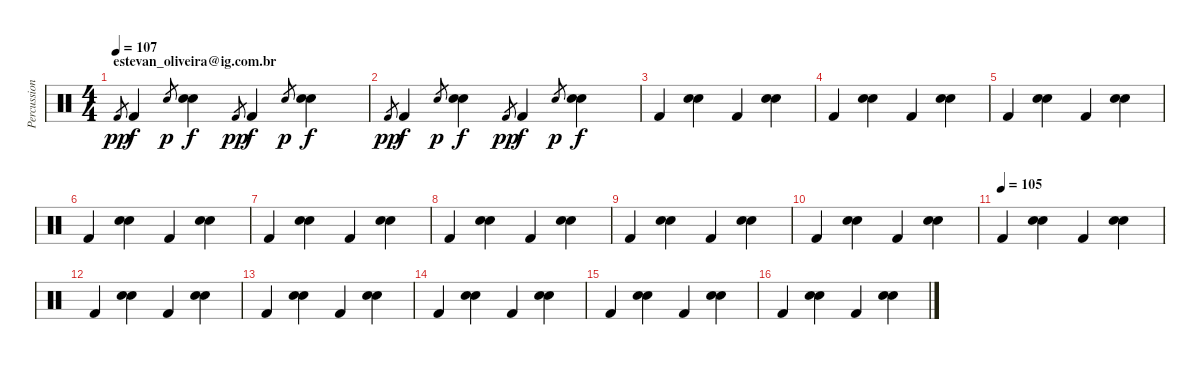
\track ("Percussion" "Percussion") {instrument percussion}
\staff {score}
\articulation defaults
\ts (4 4)
\section ("" "estevan_oliveira@ig.com.br")
\tempo 107
\clef neutral
\ks c "Kick (hit) 2".8{gr dy pp} "Kick (hit) 2".4{dy f} "Hand Clap (hit)"{sl}.8{gr dy p}
("Snare (hit) 2" "Hand Clap (hit)").4{dy f} "Kick (hit) 2".8{gr dy pp} "Kick (hit) 2".4{dy f} "Hand Clap (hit)"{sl}.8{gr dy p} ("Snare (hit) 2" "Hand Clap (hit)").4{dy f} |
"Kick (hit) 2".8{gr dy pp} "Kick (hit) 2".4{dy f} "Hand Clap (hit)"{sl}.8{gr dy p} ("Snare (hit) 2" "Hand Clap (hit)").4{dy f} "Kick (hit) 2".8{gr dy pp} "Kick (hit) 2".4{dy f} "Hand Clap (hit)"{sl}.8{gr dy p} ("Snare (hit) 2" "Hand Clap (hit)").4{dy f} |
"Kick (hit) 2".4 ("Snare (hit) 2" "Hand Clap (hit)").4 "Kick (hit) 2".4 ("Snare (hit) 2" "Hand Clap (hit)").4 |
"Kick (hit) 2".4 ("Snare (hit) 2" "Hand Clap (hit)").4 "Kick (hit) 2".4 ("Snare (hit) 2" "Hand Clap (hit)").4 |
"Kick (hit) 2".4 ("Snare (hit) 2" "Hand Clap (hit)").4 "Kick (hit) 2".4 ("Snare (hit) 2" "Hand Clap (hit)").4 |
"Kick (hit) 2".4 ("Snare (hit) 2" "Hand Clap (hit)").4 "Kick (hit) 2".4 ("Snare (hit) 2" "Hand Clap (hit)").4 |
"Kick (hit) 2".4 ("Snare (hit) 2" "Hand Clap (hit)").4 "Kick (hit) 2".4 ("Snare (hit) 2" "Hand Clap (hit)").4 |
"Kick (hit) 2".4 ("Snare (hit) 2" "Hand Clap (hit)").4 "Kick (hit) 2".4 ("Snare (hit) 2" "Hand Clap (hit)").4 |
"Kick (hit) 2".4 ("Snare (hit) 2" "Hand Clap (hit)").4 "Kick (hit) 2".4 ("Snare (hit) 2" "Hand Clap (hit)").4 |
"Kick (hit) 2".4 ("Snare (hit) 2" "Hand Clap (hit)").4 "Kick (hit) 2".4 ("Snare (hit) 2" "Hand Clap (hit)").4 |
\tempo (105)
"Kick (hit) 2".4 ("Snare (hit) 2" "Hand Clap (hit)").4 "Kick (hit) 2".4 ("Snare (hit) 2" "Hand Clap (hit)").4 |
"Kick (hit) 2".4 ("Snare (hit) 2" "Hand Clap (hit)").4 "Kick (hit) 2".4 ("Snare (hit) 2" "Hand Clap (hit)").4 |
"Kick (hit) 2".4 ("Snare (hit) 2" "Hand Clap (hit)").4 "Kick (hit) 2".4 ("Snare (hit) 2" "Hand Clap (hit)").4 |
"Kick (hit) 2".4 ("Snare (hit) 2" "Hand Clap (hit)").4 "Kick (hit) 2".4 ("Snare (hit) 2" "Hand Clap (hit)").4 |
"Kick (hit) 2".4 ("Snare (hit) 2" "Hand Clap (hit)").4 "Kick (hit) 2".4 ("Snare (hit) 2" "Hand Clap (hit)").4 |
"Kick (hit) 2".4 ("Snare (hit) 2" "Hand Clap (hit)").4 "Kick (hit) 2".4 ("Snare (hit) 2" "Hand Clap (hit)").4
